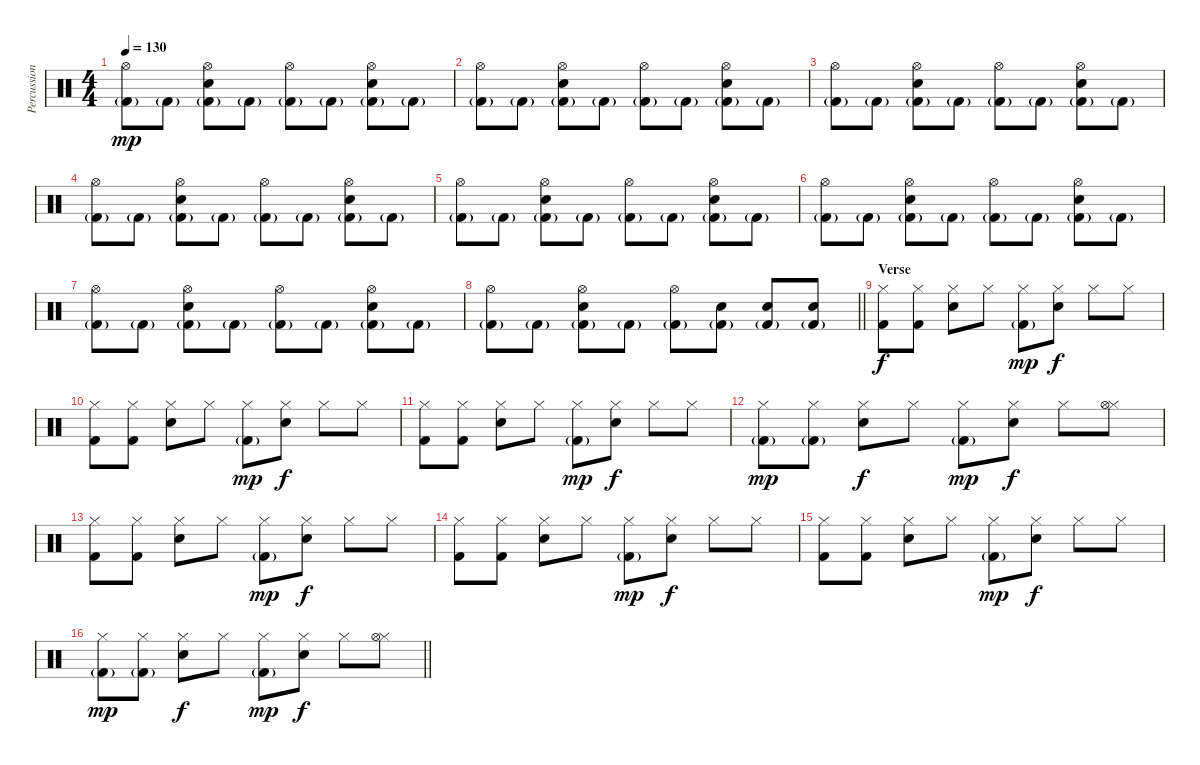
\track ("Percussions" "Percussion") {instrument percussion}
\staff {score}
\articulation defaults
\ts (4 4)
\tempo 130
\clef neutral
\ks c
("Hi-Hat (open)" "Kick (hit) 2"{g}).8{dy mp} "Kick (hit) 2"{g}.8 ("Hi-Hat (open)" "Electric Snare (hit)" "Kick (hit) 2"{g}).8 "Kick (hit) 2"{g}.8 ("Hi-Hat (open)" "Kick (hit) 2"{g}).8 "Kick (hit) 2"{g}.8 ("Hi-Hat (open)" "Electric Snare (hit)" "Kick (hit) 2"{g}).8 "Kick (hit) 2"{g}.8 |
("Hi-Hat (open)" "Kick (hit) 2"{g}).8 "Kick (hit) 2"{g}.8 ("Hi-Hat (open)" "Electric Snare (hit)" "Kick (hit) 2"{g}).8 "Kick (hit) 2"{g}.8 ("Hi-Hat (open)" "Kick (hit) 2"{g}).8 "Kick (hit) 2"{g}.8 ("Hi-Hat (open)" "Electric Snare (hit)" "Kick (hit) 2"{g}).8 "Kick (hit) 2"{g}.8 |
("Hi-Hat (open)" "Kick (hit) 2"{g}).8 "Kick (hit) 2"{g}.8 ("Hi-Hat (open)" "Electric Snare (hit)" "Kick (hit) 2"{g}).8 "Kick (hit) 2"{g}.8 ("Hi-Hat (open)" "Kick (hit) 2"{g}).8 "Kick (hit) 2"{g}.8 ("Hi-Hat (open)" "Electric Snare (hit)" "Kick (hit) 2"{g}).8 "Kick (hit) 2"{g}.8 |
("Hi-Hat (open)" "Kick (hit) 2"{g}).8 "Kick (hit) 2"{g}.8 ("Hi-Hat (open)" "Electric Snare (hit)" "Kick (hit) 2"{g}).8 "Kick (hit) 2"{g}.8 ("Hi-Hat (open)" "Kick (hit) 2"{g}).8 "Kick (hit) 2"{g}.8 ("Hi-Hat (open)" "Electric Snare (hit)" "Kick (hit) 2"{g}).8 "Kick (hit) 2"{g}.8 |
("Hi-Hat (open)" "Kick (hit) 2"{g}).8 "Kick (hit) 2"{g}.8 ("Hi-Hat (open)" "Electric Snare (hit)" "Kick (hit) 2"{g}).8 "Kick (hit) 2"{g}.8 ("Hi-Hat (open)" "Kick (hit) 2"{g}).8 "Kick (hit) 2"{g}.8 ("Hi-Hat (open)" "Electric Snare (hit)" "Kick (hit) 2"{g}).8 "Kick (hit) 2"{g}.8 |
("Hi-Hat (open)" "Kick (hit) 2"{g}).8 "Kick (hit) 2"{g}.8 ("Hi-Hat (open)" "Electric Snare (hit)" "Kick (hit) 2"{g}).8 "Kick (hit) 2"{g}.8 ("Hi-Hat (open)" "Kick (hit) 2"{g}).8 "Kick (hit) 2"{g}.8 ("Hi-Hat (open)" "Electric Snare (hit)" "Kick (hit) 2"{g}).8 "Kick (hit) 2"{g}.8 |
("Hi-Hat (open)" "Kick (hit) 2"{g}).8 "Kick (hit) 2"{g}.8 ("Hi-Hat (open)" "Electric Snare (hit)" "Kick (hit) 2"{g}).8 "Kick (hit) 2"{g}.8 ("Hi-Hat (open)" "Kick (hit) 2"{g}).8 "Kick (hit) 2"{g}.8 ("Hi-Hat (open)" "Electric Snare (hit)" "Kick (hit) 2"{g}).8 "Kick (hit) 2"{g}.8 |
\barLineRight lightlight
("Hi-Hat (open)" "Kick (hit) 2"{g}).8 "Kick (hit) 2"{g}.8 ("Hi-Hat (open)" "Electric Snare (hit)" "Kick (hit) 2"{g}).8 "Kick (hit) 2"{g}.8 ("Hi-Hat (open)" "Kick (hit) 2"{g}).8 ("Electric Snare (hit)" "Kick (hit) 2"{g}).8 ("Electric Snare (hit)" "Kick (hit) 2"{g}).8 ("Electric Snare (hit)" "Kick (hit) 2"{g}).8 |
\section ("" "Verse")
("Hi-Hat (closed)" "Kick (hit) 2").8{dy f} ("Hi-Hat (closed)" "Kick (hit) 2").8 ("Hi-Hat (closed)" "Electric Snare (hit)").8 "Hi-Hat (closed)".8 ("Hi-Hat (closed)" "Kick (hit) 2"{g}).8{dy mp} ("Hi-Hat (closed)" "Electric Snare (hit)").8{dy f} "Hi-Hat (closed)".8 "Hi-Hat (closed)".8 |
("Hi-Hat (closed)" "Kick (hit) 2").8 ("Hi-Hat (closed)" "Kick (hit) 2").8 ("Hi-Hat (closed)" "Electric Snare (hit)").8 "Hi-Hat (closed)".8 ("Hi-Hat (closed)" "Kick (hit) 2"{g}).8{dy mp} ("Hi-Hat (closed)" "Electric Snare (hit)").8{dy f} "Hi-Hat (closed)".8 "Hi-Hat (closed)".8 |
("Hi-Hat (closed)" "Kick (hit) 2").8 ("Hi-Hat (closed)" "Kick (hit) 2").8 ("Hi-Hat (closed)" "Electric Snare (hit)").8 "Hi-Hat (closed)".8 ("Hi-Hat (closed)" "Kick (hit) 2"{g}).8{dy mp} ("Hi-Hat (closed)" "Electric Snare (hit)").8{dy f} "Hi-Hat (closed)".8 "Hi-Hat (closed)".8 |
("Hi-Hat (closed)" "Kick (hit) 2"{g}).8{dy mp} ("Hi-Hat (closed)" "Kick (hit) 2"{g}).8 ("Hi-Hat (closed)" "Electric Snare (hit)").8{dy f} "Hi-Hat (closed)".8 ("Hi-Hat (closed)" "Kick (hit) 2"{g}).8{dy mp} ("Hi-Hat (closed)" "Electric Snare (hit)").8{dy f} "Hi-Hat (closed)".8 ("Hi-Hat (closed)" "Hi-Hat (open)").8 |
("Hi-Hat (closed)" "Kick (hit) 2").8 ("Hi-Hat (closed)" "Kick (hit) 2").8 ("Hi-Hat (closed)" "Electric Snare (hit)").8 "Hi-Hat (closed)".8 ("Hi-Hat (closed)" "Kick (hit) 2"{g}).8{dy mp} ("Hi-Hat (closed)" "Electric Snare (hit)").8{dy f} "Hi-Hat (closed)".8 "Hi-Hat (closed)".8 |
("Hi-Hat (closed)" "Kick (hit) 2").8 ("Hi-Hat (closed)" "Kick (hit) 2").8 ("Hi-Hat (closed)" "Electric Snare (hit)").8 "Hi-Hat (closed)".8 ("Hi-Hat (closed)" "Kick (hit) 2"{g}).8{dy mp} ("Hi-Hat (closed)" "Electric Snare (hit)").8{dy f} "Hi-Hat (closed)".8 "Hi-Hat (closed)".8 |
("Hi-Hat (closed)" "Kick (hit) 2").8 ("Hi-Hat (closed)" "Kick (hit) 2").8 ("Hi-Hat (closed)" "Electric Snare (hit)").8 "Hi-Hat (closed)".8 ("Hi-Hat (closed)" "Kick (hit) 2"{g}).8{dy mp} ("Hi-Hat (closed)" "Electric Snare (hit)").8{dy f} "Hi-Hat (closed)".8 "Hi-Hat (closed)".8 |
\barLineRight lightlight
("Hi-Hat (closed)" "Kick (hit) 2"{g}).8{dy mp} ("Hi-Hat (closed)" "Kick (hit) 2"{g}).8 ("Hi-Hat (closed)" "Electric Snare (hit)").8{dy f} "Hi-Hat (closed)".8 ("Hi-Hat (closed)" "Kick (hit) 2"{g}).8{dy mp} ("Hi-Hat (closed)" "Electric Snare (hit)").8{dy f} "Hi-Hat (closed)".8 ("Hi-Hat (closed)" "Hi-Hat (open)").8
